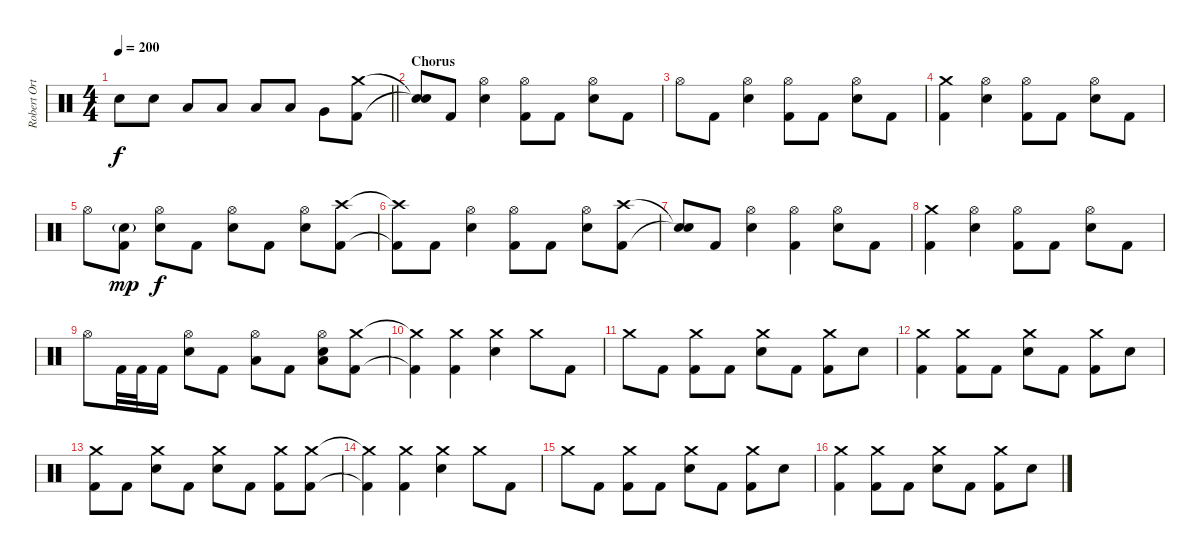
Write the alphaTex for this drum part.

\track ("Robert Ortiz - Drums" "Robert Ort") {instrument percussion}
\staff {score}
\articulation defaults
\ts (4 4)
\tempo 200
\clef neutral
\barLineRight lightlight
\ks c "Electric Snare (hit)".8{dy f} "Electric Snare (hit)".8 "Low Tom (hit)".8 "Low Tom (hit)".8 "Low Tom (hit)".8 "Low Tom (hit)".8 "Very Low Tom (hit)".8
("Crash medium (hit)" "Kick (hit) 2").8 |
\section ("" "Chorus")
("Snare (hit)"{t} "Snare (hit)"{t}).8 "Kick (hit) 2".8 ("Hi-Hat (open)" "Electric Snare (hit)").4 ("Hi-Hat (open)" "Kick (hit) 2").8 "Kick (hit) 2".8 ("Hi-Hat (open)" "Electric Snare (hit)").8 "Kick (hit) 2".8 |
"Hi-Hat (open)".8 "Kick (hit) 2".8 ("Hi-Hat (open)" "Electric Snare (hit)").4 ("Hi-Hat (open)" "Kick (hit) 2").8 "Kick (hit) 2".8 ("Hi-Hat (open)" "Electric Snare (hit)").8 "Kick (hit) 2".8 |
("Crash medium (hit)" "Kick (hit) 2").4 ("Hi-Hat (open)" "Electric Snare (hit)").4 ("Hi-Hat (open)" "Kick (hit) 2").8 "Kick (hit) 2".8 ("Hi-Hat (open)" "Electric Snare (hit)").8 "Kick (hit) 2".8 |
"Hi-Hat (open)".8 ("Electric Snare (hit)"{g} "Kick (hit) 2").8{dy mp} ("Hi-Hat (open)" "Electric Snare (hit)").8{dy f} "Kick (hit) 2".8 ("Hi-Hat (open)" "Electric Snare (hit)").8 "Kick (hit) 2".8 ("Hi-Hat (open)" "Electric Snare (hit)").8 ("Crash high (hit)" "Kick (hit) 2").8 |
("Crash high (hit)"{t} "Kick (hit) 2"{t}).8 "Kick (hit) 2".8 ("Hi-Hat (open)" "Electric Snare (hit)").4 ("Hi-Hat (open)" "Kick (hit) 2").8 "Kick (hit) 2".8 ("Hi-Hat (open)" "Electric Snare (hit)").8 ("Crash high (hit)" "Kick (hit) 2").8 |
("Snare (hit)"{t} "Snare (hit)"{t}).8 "Kick (hit) 2".8 ("Hi-Hat (open)" "Electric Snare (hit)").4 ("Hi-Hat (open)" "Kick (hit) 2").4 ("Hi-Hat (open)" "Electric Snare (hit)").8 "Kick (hit) 2".8 |
("Crash medium (hit)" "Kick (hit) 2").4 ("Hi-Hat (open)" "Electric Snare (hit)").4 ("Hi-Hat (open)" "Kick (hit) 2").8 "Kick (hit) 2".8 ("Hi-Hat (open)" "Electric Snare (hit)").8 "Kick (hit) 2".8 |
"Hi-Hat (open)".8 "Kick (hit) 2".32 "Kick (hit) 2".32 "Kick (hit) 2".16 ("Hi-Hat (open)" "Electric Snare (hit)").8 "Kick (hit) 2".8 ("Hi-Hat (open)" "Low Tom (hit)").8 "Kick (hit) 2".8 ("Hi-Hat (open)" "Electric Snare (hit)" "Low Floor Tom (hit)").8 ("Crash medium (hit)" "Kick (hit) 2").8 |
("Crash medium (hit)"{t} "Kick (hit) 2"{t}).4 ("Crash medium (hit)" "Kick (hit) 2").4 ("Crash medium (hit)" "Electric Snare (hit)").4 "Crash medium (hit)".8 "Kick (hit) 2".8 |
"Crash medium (hit)".8 "Kick (hit) 2".8 ("Crash medium (hit)" "Kick (hit) 2").8 "Kick (hit) 2".8 ("Crash medium (hit)" "Electric Snare (hit)").8 "Kick (hit) 2".8 ("Crash medium (hit)" "Kick (hit) 2").8 "Electric Snare (hit)".8 |
("Crash medium (hit)" "Kick (hit) 2").4 ("Crash medium (hit)" "Kick (hit) 2").8 "Kick (hit) 2".8 ("Crash medium (hit)" "Electric Snare (hit)").8 "Kick (hit) 2".8 ("Crash medium (hit)" "Kick (hit) 2").8 "Electric Snare (hit)".8 |
("Crash medium (hit)" "Kick (hit) 2").8 "Kick (hit) 2".8 ("Crash medium (hit)" "Electric Snare (hit)").8 "Kick (hit) 2".8 ("Crash medium (hit)" "Electric Snare (hit)").8 "Kick (hit) 2".8 ("Crash medium (hit)" "Kick (hit) 2").8 ("Crash medium (hit)" "Kick (hit) 2").8 |
("Crash medium (hit)"{t} "Kick (hit) 2"{t}).4 ("Crash medium (hit)" "Kick (hit) 2").4 ("Crash medium (hit)" "Electric Snare (hit)").4 "Crash medium (hit)".8 "Kick (hit) 2".8 |
"Crash medium (hit)".8 "Kick (hit) 2".8 ("Crash medium (hit)" "Kick (hit) 2").8 "Kick (hit) 2".8 ("Crash medium (hit)" "Electric Snare (hit)").8 "Kick (hit) 2".8 ("Crash medium (hit)" "Kick (hit) 2").8 "Electric Snare (hit)".8 |
("Crash medium (hit)" "Kick (hit) 2").4 ("Crash medium (hit)" "Kick (hit) 2").8 "Kick (hit) 2".8 ("Crash medium (hit)" "Electric Snare (hit)").8 "Kick (hit) 2".8 ("Crash medium (hit)" "Kick (hit) 2").8 "Electric Snare (hit)".8
